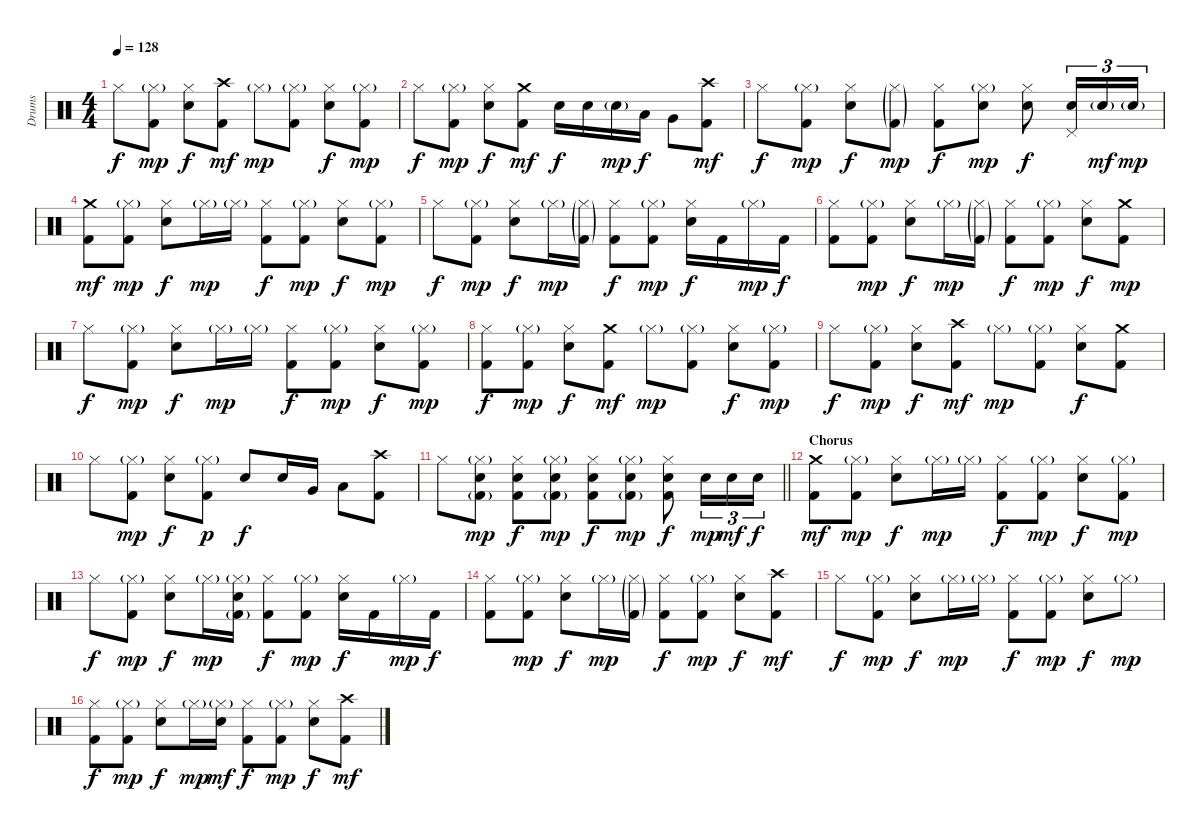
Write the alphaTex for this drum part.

\track ("Drums" "Drums") {instrument percussion}
\staff {score}
\articulation defaults
\ts (4 4)
\tempo 128
\clef neutral
\ks c "Hi-Hat (closed)".8{dy f}
("Hi-Hat (closed)"{g} "Kick (hit) 2").8{dy mp} ("Hi-Hat (closed)" "Electric Snare (hit)").8{dy f} ("Crash high (hit)" "Kick (hit) 2").8{dy mf} "Hi-Hat (closed)"{g}.8{dy mp} ("Hi-Hat (closed)"{g} "Kick (hit) 2").8 ("Hi-Hat (closed)" "Electric Snare (hit)").8{dy f} ("Hi-Hat (closed)"{g} "Kick (hit) 2").8{dy mp} |
"Hi-Hat (closed)".8{dy f} ("Hi-Hat (closed)"{g} "Kick (hit) 2").8{dy mp} ("Hi-Hat (closed)" "Electric Snare (hit)").8{dy f} ("Crash medium (hit)" "Kick (hit) 2").8{dy mf} "Electric Snare (hit)".16{dy f} "Electric Snare (hit)".16 "Electric Snare (hit)"{g}.16{dy mp} "Low Tom (hit)".16{dy f} "Very Low Tom (hit)".8 ("Crash high (hit)" "Kick (hit) 2").8{dy mf} |
"Hi-Hat (closed)".8{dy f} ("Hi-Hat (closed)"{g} "Kick (hit) 2").8{dy mp} ("Hi-Hat (closed)" "Electric Snare (hit)").8{dy f} ("Hi-Hat (closed)"{g} "Kick (hit) 2"{g}).8{dy mp} ("Hi-Hat (closed)" "Kick (hit) 2").8{dy f} ("Hi-Hat (closed)"{g} "Electric Snare (hit)").8{dy mp} ("Hi-Hat (closed)" "Electric Snare (hit)").8{dy f} ("Pedal Hi-Hat (hit)" "Electric Snare (hit)").16{tu (3 2)} "Electric Snare (hit)"{g}.16{tu (3 2) dy mf} "Electric Snare (hit)"{g}.16{tu (3 2) dy mp} |
("Crash medium (hit)" "Kick (hit) 2").8{dy mf} ("Hi-Hat (closed)"{g} "Kick (hit) 2").8{dy mp} ("Hi-Hat (closed)" "Electric Snare (hit)").8{dy f} "Hi-Hat (closed)"{g}.16{dy mp} "Hi-Hat (closed)"{g}.16 ("Hi-Hat (closed)" "Kick (hit) 2").8{dy f} ("Hi-Hat (closed)"{g} "Kick (hit) 2").8{dy mp} ("Hi-Hat (closed)" "Electric Snare (hit)").8{dy f} ("Hi-Hat (closed)"{g} "Kick (hit) 2").8{dy mp} |
"Hi-Hat (closed)".8{dy f} ("Hi-Hat (closed)"{g} "Kick (hit) 2").8{dy mp} ("Hi-Hat (closed)" "Electric Snare (hit)").8{dy f} "Hi-Hat (closed)"{g}.16{dy mp} ("Hi-Hat (closed)"{g} "Kick (hit) 2"{g}).16 ("Hi-Hat (closed)" "Kick (hit) 2").8{dy f} ("Hi-Hat (closed)"{g} "Kick (hit) 2").8{dy mp} ("Hi-Hat (closed)" "Electric Snare (hit)").16{dy f} "Kick (hit) 2".16 "Hi-Hat (closed)"{g}.16{dy mp} "Kick (hit) 2".16{dy f} |
("Hi-Hat (closed)" "Kick (hit) 2").8 ("Hi-Hat (closed)"{g} "Kick (hit) 2").8{dy mp} ("Hi-Hat (closed)" "Electric Snare (hit)").8{dy f} "Hi-Hat (closed)"{g}.16{dy mp} ("Hi-Hat (closed)"{g} "Kick (hit) 2"{g}).16 ("Hi-Hat (closed)" "Kick (hit) 2").8{dy f} ("Hi-Hat (closed)"{g} "Kick (hit) 2").8{dy mp} ("Hi-Hat (closed)" "Electric Snare (hit)").8{dy f} ("Crash medium (hit)" "Kick (hit) 2").8{dy mp} |
"Hi-Hat (closed)".8{dy f} ("Hi-Hat (closed)"{g} "Kick (hit) 2").8{dy mp} ("Hi-Hat (closed)" "Electric Snare (hit)").8{dy f} "Hi-Hat (closed)"{g}.16{dy mp} "Hi-Hat (closed)"{g}.16 ("Hi-Hat (closed)" "Kick (hit) 2").8{dy f} ("Hi-Hat (closed)"{g} "Kick (hit) 2").8{dy mp} ("Hi-Hat (closed)" "Electric Snare (hit)").8{dy f} ("Hi-Hat (closed)"{g} "Kick (hit) 2").8{dy mp} |
("Hi-Hat (closed)" "Kick (hit) 2").8{dy f} ("Hi-Hat (closed)"{g} "Kick (hit) 2").8{dy mp} ("Hi-Hat (closed)" "Electric Snare (hit)").8{dy f} ("Crash medium (hit)" "Kick (hit) 2").8{dy mf} "Hi-Hat (closed)"{g}.8{dy mp} ("Hi-Hat (closed)"{g} "Kick (hit) 2").8 ("Hi-Hat (closed)" "Electric Snare (hit)").8{dy f} ("Hi-Hat (closed)"{g} "Kick (hit) 2").8{dy mp} |
"Hi-Hat (closed)".8{dy f} ("Hi-Hat (closed)"{g} "Kick (hit) 2").8{dy mp} ("Hi-Hat (closed)" "Electric Snare (hit)").8{dy f} ("Crash high (hit)" "Kick (hit) 2").8{dy mf} "Hi-Hat (closed)"{g}.8{dy mp} ("Hi-Hat (closed)"{g} "Kick (hit) 2").8 ("Hi-Hat (closed)" "Electric Snare (hit)").8{dy f} ("Crash medium (hit)" "Kick (hit) 2").8 |
"Hi-Hat (closed)".8 ("Hi-Hat (closed)"{g} "Kick (hit) 2").8{dy mp} ("Hi-Hat (closed)" "Electric Snare (hit)").8{dy f} ("Hi-Hat (closed)"{g} "Kick (hit) 2").8{dy p} "Electric Snare (hit)".8{dy f} "Electric Snare (hit)".16 "Very Low Tom (hit)".16 "Low Floor Tom (hit)".8 ("Crash high (hit)" "Kick (hit) 2").8 |
\barLineRight lightlight "Hi-Hat (closed)".8
("Hi-Hat (closed)"{g} "Electric Snare (hit)" "Kick (hit) 2"{g}).8{dy mp} ("Hi-Hat (closed)" "Electric Snare (hit)" "Kick (hit) 2").8{dy f} ("Hi-Hat (closed)"{g} "Electric Snare (hit)" "Kick (hit) 2"{g}).8{dy mp} ("Hi-Hat (closed)" "Electric Snare (hit)" "Kick (hit) 2").8{dy f} ("Hi-Hat (closed)"{g} "Electric Snare (hit)" "Kick (hit) 2"{g}).8{dy mp} ("Hi-Hat (closed)" "Electric Snare (hit)" "Kick (hit) 2").8{dy f} "Electric Snare (hit)".16{tu (3 2) dy mp} "Electric Snare (hit)".16{tu (3 2) dy mf} "Electric Snare (hit)".16{tu (3 2) dy f} |
\section ("" "Chorus")
("Crash medium (hit)" "Kick (hit) 2").8{dy mf} ("Hi-Hat (closed)"{g} "Kick (hit) 2").8{dy mp} ("Hi-Hat (closed)" "Electric Snare (hit)").8{dy f} "Hi-Hat (closed)"{g}.16{dy mp} "Hi-Hat (closed)"{g}.16 ("Hi-Hat (closed)" "Kick (hit) 2").8{dy f} ("Hi-Hat (closed)"{g} "Kick (hit) 2").8{dy mp} ("Hi-Hat (closed)" "Electric Snare (hit)").8{dy f} ("Hi-Hat (closed)"{g} "Kick (hit) 2").8{dy mp} |
"Hi-Hat (closed)".8{dy f} ("Hi-Hat (closed)"{g} "Kick (hit) 2").8{dy mp} ("Hi-Hat (closed)" "Electric Snare (hit)").8{dy f} "Hi-Hat (closed)"{g}.16{dy mp} ("Hi-Hat (closed)"{g} "Electric Snare (hit)" "Kick (hit) 2"{g}).16 ("Hi-Hat (closed)" "Kick (hit) 2").8{dy f} ("Hi-Hat (closed)"{g} "Kick (hit) 2").8{dy mp} ("Hi-Hat (closed)" "Electric Snare (hit)").16{dy f} "Kick (hit) 2".16 "Hi-Hat (closed)"{g}.16{dy mp} "Kick (hit) 2".16{dy f} |
("Hi-Hat (closed)" "Kick (hit) 2").8 ("Hi-Hat (closed)"{g} "Kick (hit) 2").8{dy mp} ("Hi-Hat (closed)" "Electric Snare (hit)").8{dy f} "Hi-Hat (closed)"{g}.16{dy mp} ("Hi-Hat (closed)"{g} "Kick (hit) 2"{g}).16 ("Hi-Hat (closed)" "Kick (hit) 2").8{dy f} ("Hi-Hat (closed)"{g} "Kick (hit) 2").8{dy mp} ("Hi-Hat (closed)" "Electric Snare (hit)").8{dy f} ("Crash high (hit)" "Kick (hit) 2").8{dy mf} |
"Hi-Hat (closed)".8{dy f} ("Hi-Hat (closed)"{g} "Kick (hit) 2").8{dy mp} ("Hi-Hat (closed)" "Electric Snare (hit)").8{dy f} "Hi-Hat (closed)"{g}.16{dy mp} "Hi-Hat (closed)"{g}.16 ("Hi-Hat (closed)" "Kick (hit) 2").8{dy f} ("Hi-Hat (closed)"{g} "Kick (hit) 2").8{dy mp} ("Hi-Hat (closed)" "Electric Snare (hit)").8{dy f} "Hi-Hat (closed)"{g}.8{dy mp} |
("Hi-Hat (closed)" "Kick (hit) 2").8{dy f} ("Hi-Hat (closed)"{g} "Kick (hit) 2").8{dy mp} ("Hi-Hat (closed)" "Electric Snare (hit)").8{dy f} "Hi-Hat (closed)"{g}.16{dy mp} ("Hi-Hat (closed)"{g} "Electric Snare (hit)").16{dy mf} ("Hi-Hat (closed)" "Kick (hit) 2").8{dy f} ("Hi-Hat (closed)"{g} "Kick (hit) 2").8{dy mp} ("Hi-Hat (closed)" "Electric Snare (hit)").8{dy f} ("Crash high (hit)" "Kick (hit) 2").8{dy mf}
